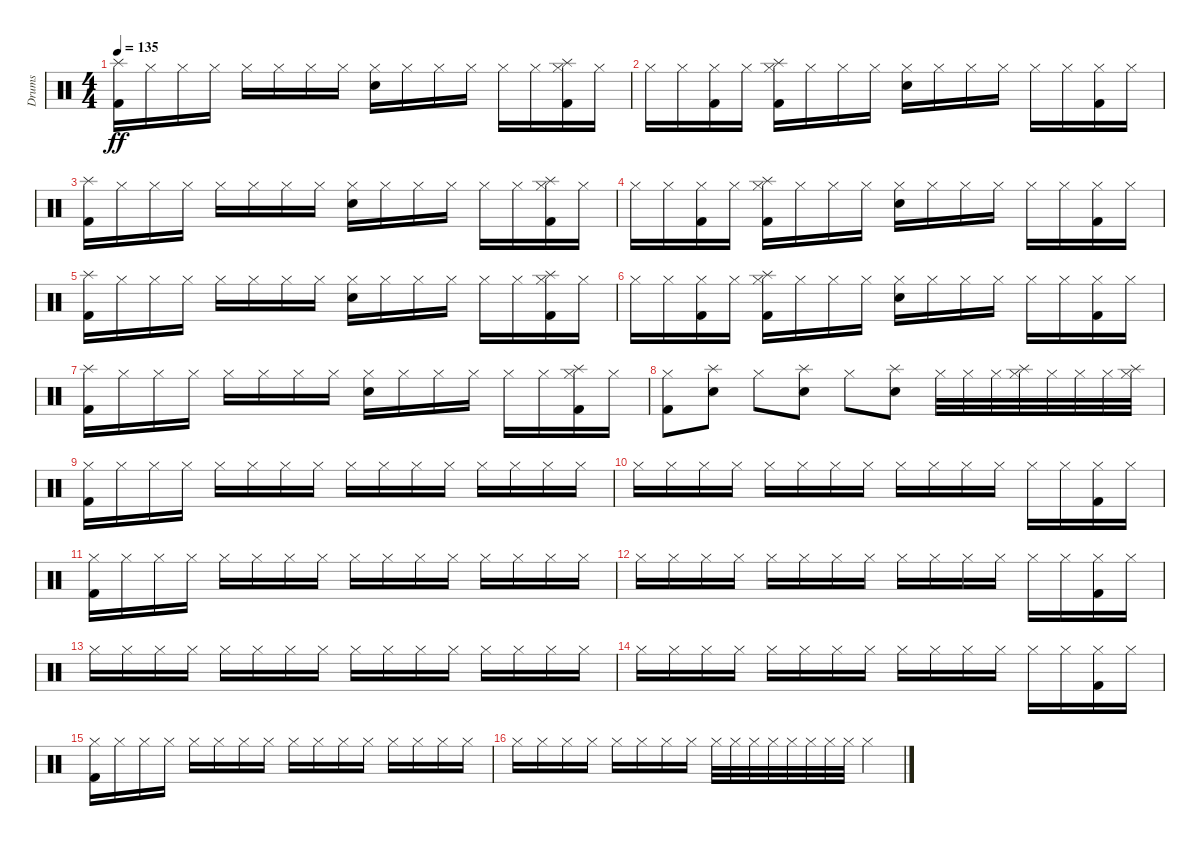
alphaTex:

\track ("Drums" "Drums") {instrument percussion}
\staff {score}
\articulation defaults
\ts (4 4)
\tempo 135
\clef neutral
\ks c
("Kick (hit) 2" "Splash (hit)").16{dy ff} "Hi-Hat (closed)".16 "Hi-Hat (closed)".16 "Hi-Hat (closed)".16 "Hi-Hat (closed)".16 "Hi-Hat (closed)".16 "Hi-Hat (closed)".16 "Hi-Hat (closed)".16 ("Electric Snare (hit)" "Hi-Hat (closed)").16 "Hi-Hat (closed)".16 "Hi-Hat (closed)".16 "Hi-Hat (closed)".16 "Hi-Hat (closed)".16 "Hi-Hat (closed)".16 ("Kick (hit) 2" "Hi-Hat (closed)" "Splash (hit)").16 "Hi-Hat (closed)".16 |
"Hi-Hat (closed)".16 "Hi-Hat (closed)".16 ("Kick (hit) 2" "Hi-Hat (closed)").16 "Hi-Hat (closed)".16 ("Kick (hit) 2" "Hi-Hat (closed)" "Splash (hit)").16 "Hi-Hat (closed)".16 "Hi-Hat (closed)".16 "Hi-Hat (closed)".16 ("Electric Snare (hit)" "Hi-Hat (closed)").16 "Hi-Hat (closed)".16 "Hi-Hat (closed)".16 "Hi-Hat (closed)".16 "Hi-Hat (closed)".16 "Hi-Hat (closed)".16 ("Kick (hit) 2" "Hi-Hat (closed)").16 "Hi-Hat (closed)".16 |
("Kick (hit) 2" "Splash (hit)").16 "Hi-Hat (closed)".16 "Hi-Hat (closed)".16 "Hi-Hat (closed)".16 "Hi-Hat (closed)".16 "Hi-Hat (closed)".16 "Hi-Hat (closed)".16 "Hi-Hat (closed)".16 ("Electric Snare (hit)" "Hi-Hat (closed)").16 "Hi-Hat (closed)".16 "Hi-Hat (closed)".16 "Hi-Hat (closed)".16 "Hi-Hat (closed)".16 "Hi-Hat (closed)".16 ("Kick (hit) 2" "Hi-Hat (closed)" "Splash (hit)").16 "Hi-Hat (closed)".16 |
"Hi-Hat (closed)".16 "Hi-Hat (closed)".16 ("Kick (hit) 2" "Hi-Hat (closed)").16 "Hi-Hat (closed)".16 ("Kick (hit) 2" "Hi-Hat (closed)" "Splash (hit)").16 "Hi-Hat (closed)".16 "Hi-Hat (closed)".16 "Hi-Hat (closed)".16 ("Electric Snare (hit)" "Hi-Hat (closed)").16 "Hi-Hat (closed)".16 "Hi-Hat (closed)".16 "Hi-Hat (closed)".16 "Hi-Hat (closed)".16 "Hi-Hat (closed)".16 ("Kick (hit) 2" "Hi-Hat (closed)").16 "Hi-Hat (closed)".16 |
("Kick (hit) 2" "Splash (hit)").16 "Hi-Hat (closed)".16 "Hi-Hat (closed)".16 "Hi-Hat (closed)".16 "Hi-Hat (closed)".16 "Hi-Hat (closed)".16 "Hi-Hat (closed)".16 "Hi-Hat (closed)".16 ("Electric Snare (hit)" "Hi-Hat (closed)").16 "Hi-Hat (closed)".16 "Hi-Hat (closed)".16 "Hi-Hat (closed)".16 "Hi-Hat (closed)".16 "Hi-Hat (closed)".16 ("Kick (hit) 2" "Hi-Hat (closed)" "Splash (hit)").16 "Hi-Hat (closed)".16 |
"Hi-Hat (closed)".16 "Hi-Hat (closed)".16 ("Kick (hit) 2" "Hi-Hat (closed)").16 "Hi-Hat (closed)".16 ("Kick (hit) 2" "Hi-Hat (closed)" "Splash (hit)").16 "Hi-Hat (closed)".16 "Hi-Hat (closed)".16 "Hi-Hat (closed)".16 ("Electric Snare (hit)" "Hi-Hat (closed)").16 "Hi-Hat (closed)".16 "Hi-Hat (closed)".16 "Hi-Hat (closed)".16 "Hi-Hat (closed)".16 "Hi-Hat (closed)".16 ("Kick (hit) 2" "Hi-Hat (closed)").16 "Hi-Hat (closed)".16 |
("Kick (hit) 2" "Splash (hit)").16 "Hi-Hat (closed)".16 "Hi-Hat (closed)".16 "Hi-Hat (closed)".16 "Hi-Hat (closed)".16 "Hi-Hat (closed)".16 "Hi-Hat (closed)".16 "Hi-Hat (closed)".16 ("Electric Snare (hit)" "Hi-Hat (closed)").16 "Hi-Hat (closed)".16 "Hi-Hat (closed)".16 "Hi-Hat (closed)".16 "Hi-Hat (closed)".16 "Hi-Hat (closed)".16 ("Kick (hit) 2" "Hi-Hat (closed)" "Splash (hit)").16 "Hi-Hat (closed)".16 |
("Kick (hit) 2" "Hi-Hat (closed)").8 ("Electric Snare (hit)" "Splash (hit)").8 "Hi-Hat (closed)".8 ("Electric Snare (hit)" "Splash (hit)").8 "Hi-Hat (closed)".8 ("Electric Snare (hit)" "Splash (hit)").8 "Hi-Hat (closed)".32 "Hi-Hat (closed)".32 "Hi-Hat (closed)".32 ("Hi-Hat (closed)" "Splash (hit)").32 "Hi-Hat (closed)".32 "Hi-Hat (closed)".32 "Hi-Hat (closed)".32 ("Hi-Hat (closed)" "Splash (hit)").32 |
("Kick (hit) 2" "Hi-Hat (closed)").16 "Hi-Hat (closed)".16 "Hi-Hat (closed)".16 "Hi-Hat (closed)".16 "Hi-Hat (closed)".16 "Hi-Hat (closed)".16 "Hi-Hat (closed)".16 "Hi-Hat (closed)".16 "Hi-Hat (closed)".16 "Hi-Hat (closed)".16 "Hi-Hat (closed)".16 "Hi-Hat (closed)".16 "Hi-Hat (closed)".16 "Hi-Hat (closed)".16 "Hi-Hat (closed)".16 "Hi-Hat (closed)".16 |
"Hi-Hat (closed)".16 "Hi-Hat (closed)".16 "Hi-Hat (closed)".16 "Hi-Hat (closed)".16 "Hi-Hat (closed)".16 "Hi-Hat (closed)".16 "Hi-Hat (closed)".16 "Hi-Hat (closed)".16 "Hi-Hat (closed)".16 "Hi-Hat (closed)".16 "Hi-Hat (closed)".16 "Hi-Hat (closed)".16 "Hi-Hat (closed)".16 "Hi-Hat (closed)".16 ("Kick (hit) 2" "Hi-Hat (closed)").16 "Hi-Hat (closed)".16 |
("Kick (hit) 2" "Hi-Hat (closed)").16 "Hi-Hat (closed)".16 "Hi-Hat (closed)".16 "Hi-Hat (closed)".16 "Hi-Hat (closed)".16 "Hi-Hat (closed)".16 "Hi-Hat (closed)".16 "Hi-Hat (closed)".16 "Hi-Hat (closed)".16 "Hi-Hat (closed)".16 "Hi-Hat (closed)".16 "Hi-Hat (closed)".16 "Hi-Hat (closed)".16 "Hi-Hat (closed)".16 "Hi-Hat (closed)".16 "Hi-Hat (closed)".16 |
"Hi-Hat (closed)".16 "Hi-Hat (closed)".16 "Hi-Hat (closed)".16 "Hi-Hat (closed)".16 "Hi-Hat (closed)".16 "Hi-Hat (closed)".16 "Hi-Hat (closed)".16 "Hi-Hat (closed)".16 "Hi-Hat (closed)".16 "Hi-Hat (closed)".16 "Hi-Hat (closed)".16 "Hi-Hat (closed)".16 "Hi-Hat (closed)".16 "Hi-Hat (closed)".16 ("Kick (hit) 2" "Hi-Hat (closed)").16 "Hi-Hat (closed)".16 |
"Hi-Hat (closed)".16 "Hi-Hat (closed)".16 "Hi-Hat (closed)".16 "Hi-Hat (closed)".16 "Hi-Hat (closed)".16 "Hi-Hat (closed)".16 "Hi-Hat (closed)".16 "Hi-Hat (closed)".16 "Hi-Hat (closed)".16 "Hi-Hat (closed)".16 "Hi-Hat (closed)".16 "Hi-Hat (closed)".16 "Hi-Hat (closed)".16 "Hi-Hat (closed)".16 "Hi-Hat (closed)".16 "Hi-Hat (closed)".16 |
"Hi-Hat (closed)".16 "Hi-Hat (closed)".16 "Hi-Hat (closed)".16 "Hi-Hat (closed)".16 "Hi-Hat (closed)".16 "Hi-Hat (closed)".16 "Hi-Hat (closed)".16 "Hi-Hat (closed)".16 "Hi-Hat (closed)".16 "Hi-Hat (closed)".16 "Hi-Hat (closed)".16 "Hi-Hat (closed)".16 "Hi-Hat (closed)".16 "Hi-Hat (closed)".16 ("Kick (hit) 2" "Hi-Hat (closed)").16 "Hi-Hat (closed)".16 |
("Kick (hit) 2" "Hi-Hat (closed)").16 "Hi-Hat (closed)".16 "Hi-Hat (closed)".16 "Hi-Hat (closed)".16 "Hi-Hat (closed)".16 "Hi-Hat (closed)".16 "Hi-Hat (closed)".16 "Hi-Hat (closed)".16 "Hi-Hat (closed)".16 "Hi-Hat (closed)".16 "Hi-Hat (closed)".16 "Hi-Hat (closed)".16 "Hi-Hat (closed)".16 "Hi-Hat (closed)".16 "Hi-Hat (closed)".16 "Hi-Hat (closed)".16 |
"Hi-Hat (closed)".16 "Hi-Hat (closed)".16 "Hi-Hat (closed)".16 "Hi-Hat (closed)".16 "Hi-Hat (closed)".16 "Hi-Hat (closed)".16 "Hi-Hat (closed)".16 "Hi-Hat (closed)".16 "Hi-Hat (closed)".32 "Hi-Hat (closed)".32 "Hi-Hat (closed)".32 "Hi-Hat (closed)".32 "Hi-Hat (closed)".32 "Hi-Hat (closed)".32 "Hi-Hat (closed)".32 "Hi-Hat (closed)".32 "Hi-Hat (closed)".4
